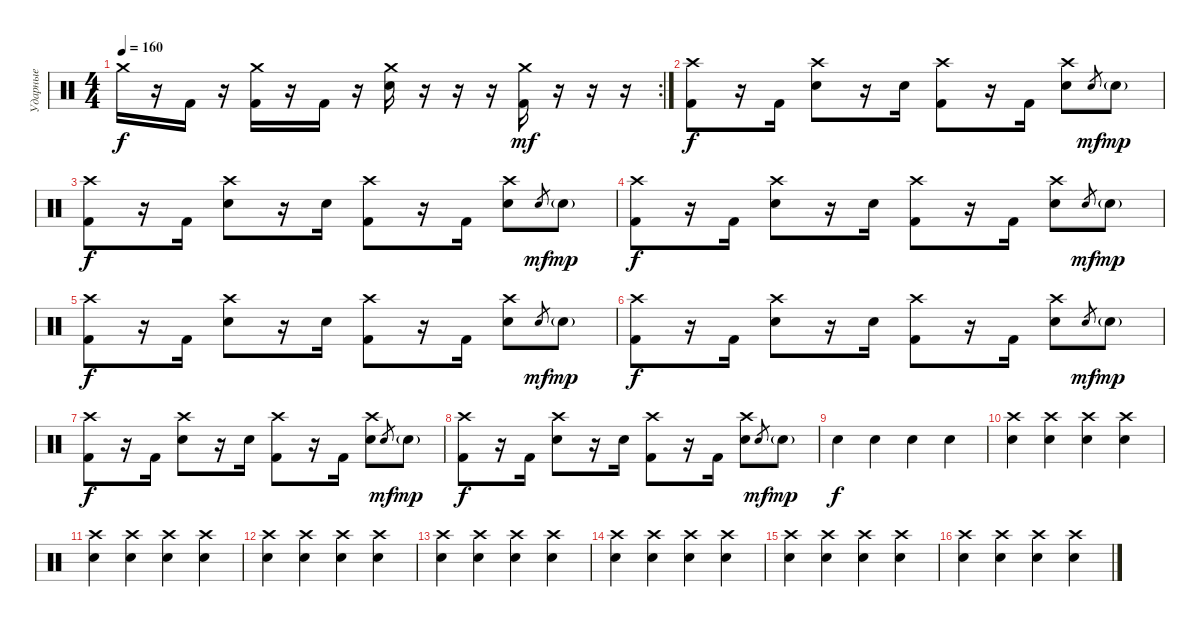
\track ("Ударные" "Ударные") {instrument percussion}
\staff {score}
\articulation defaults
\rc 2
\ts (4 4)
\tempo 160
\clef neutral
\ks c "Crash medium (hit)".16{dy f}
r.16 "Kick (hit) 2".16 r.16 ("Crash medium (hit)" "Kick (hit) 2").16 r.16 "Kick (hit) 2".16 r.16 ("Crash medium (hit)" "Electric Snare (hit)").16 r.16 r.16 r.16 ("Crash medium (hit)" "Kick (hit) 2").16{dy mf} r.16 r.16 r.16 |
("Crash high (hit)" "Kick (hit) 2").8{dy f} r.16 "Kick (hit) 2".16 ("Crash high (hit)" "Electric Snare (hit)").8 r.16 "Electric Snare (hit)".16 ("Crash high (hit)" "Kick (hit) 2").8 r.16 "Kick (hit) 2".16 ("Crash high (hit)" "Electric Snare (hit)").8 "Electric Snare (hit)".8{gr dy mf} "Electric Snare (hit)"{g}.8{dy mp} |
("Crash high (hit)" "Kick (hit) 2").8{dy f} r.16 "Kick (hit) 2".16 ("Crash high (hit)" "Electric Snare (hit)").8 r.16 "Electric Snare (hit)".16 ("Crash high (hit)" "Kick (hit) 2").8 r.16 "Kick (hit) 2".16 ("Crash high (hit)" "Electric Snare (hit)").8 "Electric Snare (hit)".8{gr dy mf} "Electric Snare (hit)"{g}.8{dy mp} |
("Crash high (hit)" "Kick (hit) 2").8{dy f} r.16 "Kick (hit) 2".16 ("Crash high (hit)" "Electric Snare (hit)").8 r.16 "Electric Snare (hit)".16 ("Crash high (hit)" "Kick (hit) 2").8 r.16 "Kick (hit) 2".16 ("Crash high (hit)" "Electric Snare (hit)").8 "Electric Snare (hit)".8{gr dy mf} "Electric Snare (hit)"{g}.8{dy mp} |
("Crash high (hit)" "Kick (hit) 2").8{dy f} r.16 "Kick (hit) 2".16 ("Crash high (hit)" "Electric Snare (hit)").8 r.16 "Electric Snare (hit)".16 ("Crash high (hit)" "Kick (hit) 2").8 r.16 "Kick (hit) 2".16 ("Crash high (hit)" "Electric Snare (hit)").8 "Electric Snare (hit)".8{gr dy mf} "Electric Snare (hit)"{g}.8{dy mp} |
("Crash high (hit)" "Kick (hit) 2").8{dy f} r.16 "Kick (hit) 2".16 ("Crash high (hit)" "Electric Snare (hit)").8 r.16 "Electric Snare (hit)".16 ("Crash high (hit)" "Kick (hit) 2").8 r.16 "Kick (hit) 2".16 ("Crash high (hit)" "Electric Snare (hit)").8 "Electric Snare (hit)".8{gr dy mf} "Electric Snare (hit)"{g}.8{dy mp} |
("Crash high (hit)" "Kick (hit) 2").8{dy f} r.16 "Kick (hit) 2".16 ("Crash high (hit)" "Electric Snare (hit)").8 r.16 "Electric Snare (hit)".16 ("Crash high (hit)" "Kick (hit) 2").8 r.16 "Kick (hit) 2".16 ("Crash high (hit)" "Electric Snare (hit)").8 "Electric Snare (hit)".8{gr dy mf} "Electric Snare (hit)"{g}.8{dy mp} |
("Crash high (hit)" "Kick (hit) 2").8{dy f} r.16 "Kick (hit) 2".16 ("Crash high (hit)" "Electric Snare (hit)").8 r.16 "Electric Snare (hit)".16 ("Crash high (hit)" "Kick (hit) 2").8 r.16 "Kick (hit) 2".16 ("Crash high (hit)" "Electric Snare (hit)").8 "Electric Snare (hit)".8{gr dy mf} "Electric Snare (hit)"{g}.8{dy mp} |
"Electric Snare (hit)".4{dy f} "Electric Snare (hit)".4 "Electric Snare (hit)".4 "Electric Snare (hit)".4 |
("Crash high (hit)" "Electric Snare (hit)").4 ("Crash high (hit)" "Electric Snare (hit)").4 ("Crash high (hit)" "Electric Snare (hit)").4 ("Crash high (hit)" "Electric Snare (hit)").4 |
("Crash high (hit)" "Electric Snare (hit)").4 ("Crash high (hit)" "Electric Snare (hit)").4 ("Crash high (hit)" "Electric Snare (hit)").4 ("Crash high (hit)" "Electric Snare (hit)").4 |
("Crash high (hit)" "Electric Snare (hit)").4 ("Crash high (hit)" "Electric Snare (hit)").4 ("Crash high (hit)" "Electric Snare (hit)").4 ("Crash high (hit)" "Electric Snare (hit)").4 |
("Crash high (hit)" "Electric Snare (hit)").4 ("Crash high (hit)" "Electric Snare (hit)").4 ("Crash high (hit)" "Electric Snare (hit)").4 ("Crash high (hit)" "Electric Snare (hit)").4 |
("Crash high (hit)" "Electric Snare (hit)").4 ("Crash high (hit)" "Electric Snare (hit)").4 ("Crash high (hit)" "Electric Snare (hit)").4 ("Crash high (hit)" "Electric Snare (hit)").4 |
("Crash high (hit)" "Electric Snare (hit)").4 ("Crash high (hit)" "Electric Snare (hit)").4 ("Crash high (hit)" "Electric Snare (hit)").4 ("Crash high (hit)" "Electric Snare (hit)").4 |
("Crash high (hit)" "Electric Snare (hit)").4 ("Crash high (hit)" "Electric Snare (hit)").4 ("Crash high (hit)" "Electric Snare (hit)").4 ("Crash high (hit)" "Electric Snare (hit)").4
